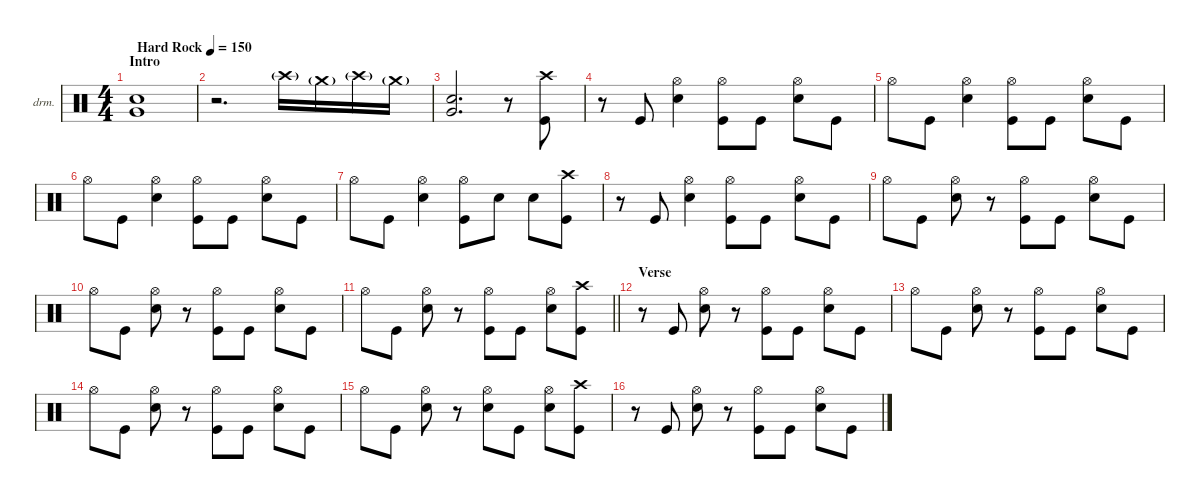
\defaultSystemsLayout 4
\hideDynamics
\bracketExtendMode nobrackets
\firstSystemTrackNameOrientation horizontal
\otherSystemsTrackNameOrientation horizontal
\track ("Stix Zadinia" "drm.") {instrument percussion}
\staff {score}
\articulation defaults
\ts (4 4)
\beaming (8 2 2 2 2)
\section ("" "Intro")
\tempo (150 "Hard Rock")
\clef neutral
\ks c
("Very Low Tom (hit)" "Snare (hit) 2").1{dy f} |
r.2{d} "Crash high (hit)"{g}.16{dy mf} "Crash medium (hit)"{g}.16 "Crash high (hit)"{g}.16 "Crash medium (hit)"{g}.16 |
("Very Low Tom (hit)" "Snare (hit) 2").2{d dy f} r.8 ("Crash high (hit)" "Kick (hit)").8 |
r.8 "Kick (hit)".8 ("Hi-Hat (open)" "Snare (hit) 2").4 ("Hi-Hat (open)" "Kick (hit)").8 "Kick (hit)".8 ("Hi-Hat (open)" "Snare (hit) 2").8 "Kick (hit)".8 |
"Hi-Hat (open)".8 "Kick (hit)".8 ("Hi-Hat (open)" "Snare (hit) 2").4 ("Hi-Hat (open)" "Kick (hit)").8 "Kick (hit)".8 ("Hi-Hat (open)" "Snare (hit) 2").8 "Kick (hit)".8 |
"Hi-Hat (open)".8 "Kick (hit)".8 ("Hi-Hat (open)" "Snare (hit) 2").4 ("Hi-Hat (open)" "Kick (hit)").8 "Kick (hit)".8 ("Hi-Hat (open)" "Snare (hit) 2").8 "Kick (hit)".8 |
"Hi-Hat (open)".8 "Kick (hit)".8 ("Hi-Hat (open)" "Snare (hit) 2").4 ("Hi-Hat (open)" "Kick (hit)").8 "Snare (hit) 2".8 "Snare (hit) 2".8 ("Crash high (hit)" "Kick (hit)").8 |
r.8 "Kick (hit)".8 ("Hi-Hat (open)" "Snare (hit) 2").4 ("Hi-Hat (open)" "Kick (hit)").8 "Kick (hit)".8 ("Hi-Hat (open)" "Snare (hit) 2").8 "Kick (hit)".8 |
"Hi-Hat (open)".8 "Kick (hit)".8 ("Hi-Hat (open)" "Snare (hit) 2").8 r.8 ("Hi-Hat (open)" "Kick (hit)").8 "Kick (hit)".8 ("Hi-Hat (open)" "Snare (hit) 2").8 "Kick (hit)".8 |
"Hi-Hat (open)".8 "Kick (hit)".8 ("Hi-Hat (open)" "Snare (hit) 2").8 r.8 ("Hi-Hat (open)" "Kick (hit)").8 "Kick (hit)".8 ("Hi-Hat (open)" "Snare (hit) 2").8 "Kick (hit)".8 |
\barLineRight lightlight "Hi-Hat (open)".8 "Kick (hit)".8
("Hi-Hat (open)" "Snare (hit) 2").8 r.8 ("Hi-Hat (open)" "Kick (hit)").8 "Kick (hit)".8 ("Hi-Hat (open)" "Snare (hit) 2").8 ("Crash high (hit)" "Kick (hit)").8 |
\section ("" "Verse")
r.8 "Kick (hit)".8 ("Hi-Hat (open)" "Snare (hit) 2").8 r.8 ("Hi-Hat (open)" "Kick (hit)").8 "Kick (hit)".8 ("Hi-Hat (open)" "Snare (hit) 2").8 "Kick (hit)".8 |
"Hi-Hat (open)".8 "Kick (hit)".8 ("Hi-Hat (open)" "Snare (hit) 2").8 r.8 ("Hi-Hat (open)" "Kick (hit)").8 "Kick (hit)".8 ("Hi-Hat (open)" "Snare (hit) 2").8 "Kick (hit)".8 |
"Hi-Hat (open)".8 "Kick (hit)".8 ("Hi-Hat (open)" "Snare (hit) 2").8 r.8 ("Hi-Hat (open)" "Kick (hit)").8 "Kick (hit)".8 ("Hi-Hat (open)" "Snare (hit) 2").8 "Kick (hit)".8 |
"Hi-Hat (open)".8 "Kick (hit)".8 ("Hi-Hat (open)" "Snare (hit) 2").8 r.8 ("Hi-Hat (open)" "Snare (hit) 2").8 "Kick (hit)".8 ("Hi-Hat (open)" "Snare (hit) 2").8 ("Crash high (hit)" "Kick (hit)").8 |
r.8 "Kick (hit)".8 ("Hi-Hat (open)" "Snare (hit) 2").8 r.8 ("Hi-Hat (open)" "Kick (hit)").8 "Kick (hit)".8 ("Hi-Hat (open)" "Snare (hit) 2").8 "Kick (hit)".8
